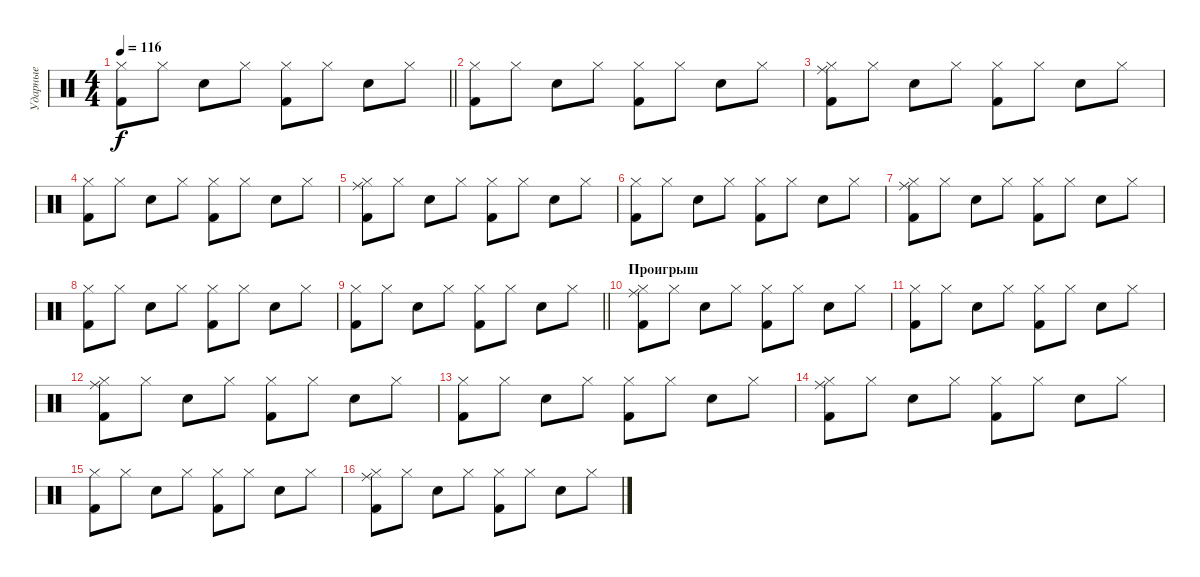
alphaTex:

\track ("Ударные" "Ударные") {instrument percussion}
\staff {score}
\articulation defaults
\ts (4 4)
\tempo 116
\clef neutral
\barLineRight lightlight
\ks c
("Hi-Hat (closed)" "Kick (hit) 2").8{dy f} "Hi-Hat (closed)".8 "Snare (hit) 2".8 "Hi-Hat (closed)".8 ("Hi-Hat (closed)" "Kick (hit) 2").8 "Hi-Hat (closed)".8 "Snare (hit) 2".8 "Hi-Hat (closed)".8 |
("Hi-Hat (closed)" "Kick (hit) 2").8 "Hi-Hat (closed)".8 "Snare (hit) 2".8 "Hi-Hat (closed)".8 ("Hi-Hat (closed)" "Kick (hit) 2").8 "Hi-Hat (closed)".8 "Snare (hit) 2".8 "Hi-Hat (closed)".8 |
("Hi-Hat (closed)" "Kick (hit) 2" "Ride (middle)").8 "Hi-Hat (closed)".8 "Snare (hit) 2".8 "Hi-Hat (closed)".8 ("Hi-Hat (closed)" "Kick (hit) 2").8 "Hi-Hat (closed)".8 "Snare (hit) 2".8 "Hi-Hat (closed)".8 |
("Hi-Hat (closed)" "Kick (hit) 2").8 "Hi-Hat (closed)".8 "Snare (hit) 2".8 "Hi-Hat (closed)".8 ("Hi-Hat (closed)" "Kick (hit) 2").8 "Hi-Hat (closed)".8 "Snare (hit) 2".8 "Hi-Hat (closed)".8 |
("Hi-Hat (closed)" "Kick (hit) 2" "Ride (middle)").8 "Hi-Hat (closed)".8 "Snare (hit) 2".8 "Hi-Hat (closed)".8 ("Hi-Hat (closed)" "Kick (hit) 2").8 "Hi-Hat (closed)".8 "Snare (hit) 2".8 "Hi-Hat (closed)".8 |
("Hi-Hat (closed)" "Kick (hit) 2").8 "Hi-Hat (closed)".8 "Snare (hit) 2".8 "Hi-Hat (closed)".8 ("Hi-Hat (closed)" "Kick (hit) 2").8 "Hi-Hat (closed)".8 "Snare (hit) 2".8 "Hi-Hat (closed)".8 |
("Hi-Hat (closed)" "Kick (hit) 2" "Ride (middle)").8 "Hi-Hat (closed)".8 "Snare (hit) 2".8 "Hi-Hat (closed)".8 ("Hi-Hat (closed)" "Kick (hit) 2").8 "Hi-Hat (closed)".8 "Snare (hit) 2".8 "Hi-Hat (closed)".8 |
("Hi-Hat (closed)" "Kick (hit) 2").8 "Hi-Hat (closed)".8 "Snare (hit) 2".8 "Hi-Hat (closed)".8 ("Hi-Hat (closed)" "Kick (hit) 2").8 "Hi-Hat (closed)".8 "Snare (hit) 2".8 "Hi-Hat (closed)".8 |
\barLineRight lightlight
("Hi-Hat (closed)" "Kick (hit) 2").8 "Hi-Hat (closed)".8 "Snare (hit) 2".8 "Hi-Hat (closed)".8 ("Hi-Hat (closed)" "Kick (hit) 2").8 "Hi-Hat (closed)".8 "Snare (hit) 2".8 "Hi-Hat (closed)".8 |
\section ("" "Проигрыш")
("Hi-Hat (closed)" "Kick (hit) 2" "Ride (middle)").8 "Hi-Hat (closed)".8 "Snare (hit) 2".8 "Hi-Hat (closed)".8 ("Hi-Hat (closed)" "Kick (hit) 2").8 "Hi-Hat (closed)".8 "Snare (hit) 2".8 "Hi-Hat (closed)".8 |
("Hi-Hat (closed)" "Kick (hit) 2").8 "Hi-Hat (closed)".8 "Snare (hit) 2".8 "Hi-Hat (closed)".8 ("Hi-Hat (closed)" "Kick (hit) 2").8 "Hi-Hat (closed)".8 "Snare (hit) 2".8 "Hi-Hat (closed)".8 |
("Hi-Hat (closed)" "Kick (hit) 2" "Ride (middle)").8 "Hi-Hat (closed)".8 "Snare (hit) 2".8 "Hi-Hat (closed)".8 ("Hi-Hat (closed)" "Kick (hit) 2").8 "Hi-Hat (closed)".8 "Snare (hit) 2".8 "Hi-Hat (closed)".8 |
("Hi-Hat (closed)" "Kick (hit) 2").8 "Hi-Hat (closed)".8 "Snare (hit) 2".8 "Hi-Hat (closed)".8 ("Hi-Hat (closed)" "Kick (hit) 2").8 "Hi-Hat (closed)".8 "Snare (hit) 2".8 "Hi-Hat (closed)".8 |
("Hi-Hat (closed)" "Kick (hit) 2" "Ride (middle)").8 "Hi-Hat (closed)".8 "Snare (hit) 2".8 "Hi-Hat (closed)".8 ("Hi-Hat (closed)" "Kick (hit) 2").8 "Hi-Hat (closed)".8 "Snare (hit) 2".8 "Hi-Hat (closed)".8 |
("Hi-Hat (closed)" "Kick (hit) 2").8 "Hi-Hat (closed)".8 "Snare (hit) 2".8 "Hi-Hat (closed)".8 ("Hi-Hat (closed)" "Kick (hit) 2").8 "Hi-Hat (closed)".8 "Snare (hit) 2".8 "Hi-Hat (closed)".8 |
("Hi-Hat (closed)" "Kick (hit) 2" "Ride (middle)").8 "Hi-Hat (closed)".8 "Snare (hit) 2".8 "Hi-Hat (closed)".8 ("Hi-Hat (closed)" "Kick (hit) 2").8 "Hi-Hat (closed)".8 "Snare (hit) 2".8 "Hi-Hat (closed)".8
